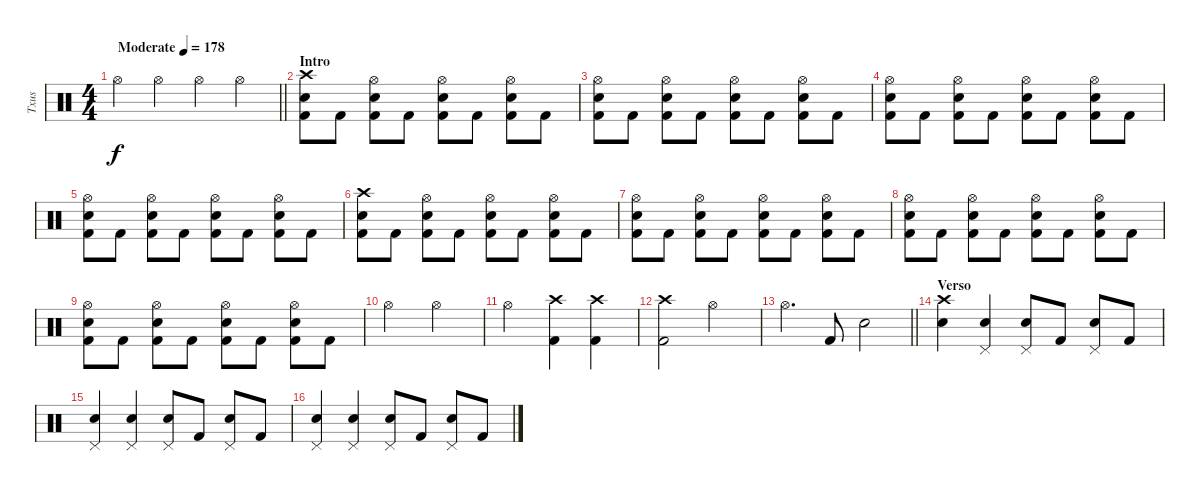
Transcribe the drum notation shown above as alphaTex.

\track ("Txus" "Txus") {instrument percussion}
\staff {score}
\articulation defaults
\ts (4 4)
\tempo (178 "Moderate")
\clef neutral
\barLineRight lightlight
\ks c "Hi-Hat (open)".4{dy f} "Hi-Hat (open)".4 "Hi-Hat (open)".4 "Hi-Hat (open)".4
|
\section ("" "Intro")
("Crash high (hit)" "Electric Snare (hit)" "Kick (hit) 2").8 "Kick (hit) 2".8 ("Hi-Hat (open)" "Electric Snare (hit)" "Kick (hit) 2").8 "Kick (hit) 2".8 ("Hi-Hat (open)" "Electric Snare (hit)" "Kick (hit) 2").8 "Kick (hit) 2".8 ("Hi-Hat (open)" "Electric Snare (hit)" "Kick (hit) 2").8 "Kick (hit) 2".8 |
("Hi-Hat (open)" "Electric Snare (hit)" "Kick (hit) 2").8 "Kick (hit) 2".8 ("Hi-Hat (open)" "Electric Snare (hit)" "Kick (hit) 2").8 "Kick (hit) 2".8 ("Hi-Hat (open)" "Electric Snare (hit)" "Kick (hit) 2").8 "Kick (hit) 2".8 ("Hi-Hat (open)" "Electric Snare (hit)" "Kick (hit) 2").8 "Kick (hit) 2".8 |
("Hi-Hat (open)" "Electric Snare (hit)" "Kick (hit) 2").8 "Kick (hit) 2".8 ("Hi-Hat (open)" "Electric Snare (hit)" "Kick (hit) 2").8 "Kick (hit) 2".8 ("Hi-Hat (open)" "Electric Snare (hit)" "Kick (hit) 2").8 "Kick (hit) 2".8 ("Hi-Hat (open)" "Electric Snare (hit)" "Kick (hit) 2").8 "Kick (hit) 2".8 |
("Hi-Hat (open)" "Electric Snare (hit)" "Kick (hit) 2").8 "Kick (hit) 2".8 ("Hi-Hat (open)" "Electric Snare (hit)" "Kick (hit) 2").8 "Kick (hit) 2".8 ("Hi-Hat (open)" "Electric Snare (hit)" "Kick (hit) 2").8 "Kick (hit) 2".8 ("Hi-Hat (open)" "Electric Snare (hit)" "Kick (hit) 2").8 "Kick (hit) 2".8 |
("Crash high (hit)" "Electric Snare (hit)" "Kick (hit) 2").8 "Kick (hit) 2".8 ("Hi-Hat (open)" "Electric Snare (hit)" "Kick (hit) 2").8 "Kick (hit) 2".8 ("Hi-Hat (open)" "Electric Snare (hit)" "Kick (hit) 2").8 "Kick (hit) 2".8 ("Hi-Hat (open)" "Electric Snare (hit)" "Kick (hit) 2").8 "Kick (hit) 2".8 |
("Hi-Hat (open)" "Electric Snare (hit)" "Kick (hit) 2").8 "Kick (hit) 2".8 ("Hi-Hat (open)" "Electric Snare (hit)" "Kick (hit) 2").8 "Kick (hit) 2".8 ("Hi-Hat (open)" "Electric Snare (hit)" "Kick (hit) 2").8 "Kick (hit) 2".8 ("Hi-Hat (open)" "Electric Snare (hit)" "Kick (hit) 2").8 "Kick (hit) 2".8 |
("Hi-Hat (open)" "Electric Snare (hit)" "Kick (hit) 2").8 "Kick (hit) 2".8 ("Hi-Hat (open)" "Electric Snare (hit)" "Kick (hit) 2").8 "Kick (hit) 2".8 ("Hi-Hat (open)" "Electric Snare (hit)" "Kick (hit) 2").8 "Kick (hit) 2".8 ("Hi-Hat (open)" "Electric Snare (hit)" "Kick (hit) 2").8 "Kick (hit) 2".8 |
("Hi-Hat (open)" "Electric Snare (hit)" "Kick (hit) 2").8 "Kick (hit) 2".8 ("Hi-Hat (open)" "Electric Snare (hit)" "Kick (hit) 2").8 "Kick (hit) 2".8 ("Hi-Hat (open)" "Electric Snare (hit)" "Kick (hit) 2").8 "Kick (hit) 2".8 ("Hi-Hat (open)" "Electric Snare (hit)" "Kick (hit) 2").8 "Kick (hit) 2".8 |
"Hi-Hat (open)".2 "Hi-Hat (open)".2 |
"Hi-Hat (open)".2 ("Crash high (hit)" "Kick (hit) 2").4 ("Crash high (hit)" "Kick (hit) 2").4 |
("Crash high (hit)" "Kick (hit) 2").2 "Hi-Hat (open)".2 |
\barLineRight lightlight "Hi-Hat (open)".4{d} "Kick (hit) 2".8 "Electric Snare (hit)".2
|
\section ("" "Verso")
("Crash high (hit)" "Electric Snare (hit)").4 ("Pedal Hi-Hat (hit)" "Electric Snare (hit)").4 ("Pedal Hi-Hat (hit)" "Electric Snare (hit)").8 "Kick (hit) 2".8 ("Pedal Hi-Hat (hit)" "Electric Snare (hit)").8 "Kick (hit) 2".8 |
("Pedal Hi-Hat (hit)" "Electric Snare (hit)").4 ("Pedal Hi-Hat (hit)" "Electric Snare (hit)").4 ("Pedal Hi-Hat (hit)" "Electric Snare (hit)").8 "Kick (hit) 2".8 ("Pedal Hi-Hat (hit)" "Electric Snare (hit)").8 "Kick (hit) 2".8 |
("Pedal Hi-Hat (hit)" "Electric Snare (hit)").4 ("Pedal Hi-Hat (hit)" "Electric Snare (hit)").4 ("Pedal Hi-Hat (hit)" "Electric Snare (hit)").8 "Kick (hit) 2".8 ("Pedal Hi-Hat (hit)" "Electric Snare (hit)").8 "Kick (hit) 2".8
